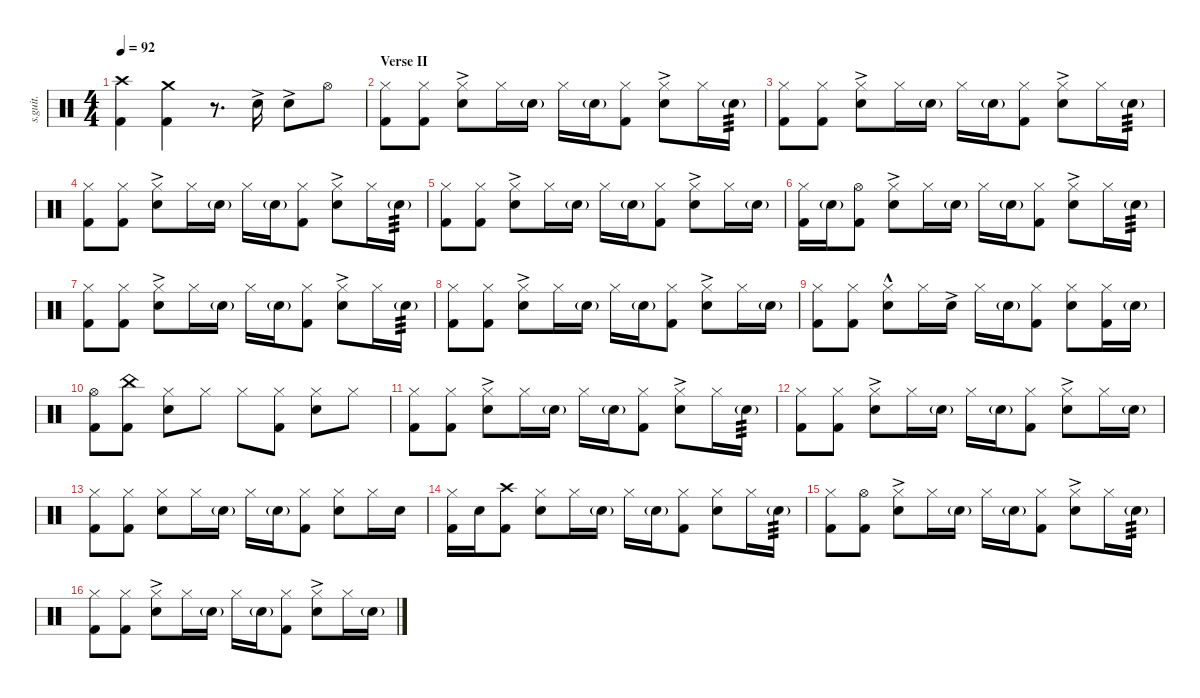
\defaultSystemsLayout 4
\hideDynamics
\bracketExtendMode nobrackets
\track ("Chad Smith | Pearl Masters Series | Drums" "s.guit.") {instrument percussion}
\staff {score}
\articulation defaults
\ts (4 4)
\tempo 92
\clef neutral
\ks c
("Crash high (hit)" "Kick (hit) 2").4{dy f} ("Crash medium (hit)" "Kick (hit) 2").4 r.8{d} "Snare (hit) 2"{ac}.16 "Snare (hit) 2"{ac}.8 "Hi-Hat (open)".8 |
\section ("" "Verse II")
("Hi-Hat (closed)" "Kick (hit) 2").8 ("Hi-Hat (closed)" "Kick (hit) 2").8 ("Hi-Hat (closed)" "Snare (hit) 2"{ac}).8 "Hi-Hat (closed)".16 "Snare (hit) 2"{g}.16 "Hi-Hat (closed)".16 "Snare (hit) 2"{g}.16 ("Hi-Hat (closed)" "Kick (hit) 2").8 ("Hi-Hat (closed)" "Snare (hit) 2"{ac}).8 "Hi-Hat (closed)".16 "Snare (hit) 2"{g}.16{tp 3} |
("Hi-Hat (closed)" "Kick (hit) 2").8 ("Hi-Hat (closed)" "Kick (hit) 2").8 ("Hi-Hat (closed)" "Snare (hit) 2"{ac}).8 "Hi-Hat (closed)".16 "Snare (hit) 2"{g}.16 "Hi-Hat (closed)".16 "Snare (hit) 2"{g}.16 ("Hi-Hat (closed)" "Kick (hit) 2").8 ("Hi-Hat (closed)" "Snare (hit) 2"{ac}).8 "Hi-Hat (closed)".16 "Snare (hit) 2"{g}.16{tp 3} |
("Hi-Hat (closed)" "Kick (hit) 2").8 ("Hi-Hat (closed)" "Kick (hit) 2").8 ("Hi-Hat (closed)" "Snare (hit) 2"{ac}).8 "Hi-Hat (closed)".16 "Snare (hit) 2"{g}.16 "Hi-Hat (closed)".16 "Snare (hit) 2"{g}.16 ("Hi-Hat (closed)" "Kick (hit) 2").8 ("Hi-Hat (closed)" "Snare (hit) 2"{ac}).8 "Hi-Hat (closed)".16 "Snare (hit) 2"{g}.16{tp 3} |
("Hi-Hat (closed)" "Kick (hit) 2").8 ("Hi-Hat (closed)" "Kick (hit) 2").8 ("Hi-Hat (closed)" "Snare (hit) 2"{ac}).8 "Hi-Hat (closed)".16 "Snare (hit) 2"{g}.16 "Hi-Hat (closed)".16 "Snare (hit) 2"{g}.16 ("Hi-Hat (closed)" "Kick (hit) 2").8 ("Hi-Hat (closed)" "Snare (hit) 2"{ac}).8 "Hi-Hat (closed)".16 "Snare (hit) 2"{g}.16 |
("Hi-Hat (closed)" "Kick (hit) 2").16 "Snare (hit) 2"{g}.16 ("Hi-Hat (open)" "Kick (hit) 2").8 ("Hi-Hat (closed)" "Snare (hit) 2"{ac}).8 "Hi-Hat (closed)".16 "Snare (hit) 2"{g}.16 "Hi-Hat (closed)".16 "Snare (hit) 2"{g}.16 ("Hi-Hat (closed)" "Kick (hit) 2").8 ("Hi-Hat (closed)" "Snare (hit) 2"{ac}).8 "Hi-Hat (closed)".16 "Snare (hit) 2"{g}.16{tp 3} |
("Hi-Hat (closed)" "Kick (hit) 2").8 ("Hi-Hat (closed)" "Kick (hit) 2").8 ("Hi-Hat (closed)" "Snare (hit) 2"{ac}).8 "Hi-Hat (closed)".16 "Snare (hit) 2"{g}.16 "Hi-Hat (closed)".16 "Snare (hit) 2"{g}.16 ("Hi-Hat (closed)" "Kick (hit) 2").8 ("Hi-Hat (closed)" "Snare (hit) 2"{ac}).8 "Hi-Hat (closed)".16 "Snare (hit) 2"{g}.16{tp 3} |
("Hi-Hat (closed)" "Kick (hit) 2").8 ("Hi-Hat (closed)" "Kick (hit) 2").8 ("Hi-Hat (closed)" "Snare (hit) 2"{ac}).8 "Hi-Hat (closed)".16 "Snare (hit) 2"{g}.16 "Hi-Hat (closed)".16 "Snare (hit) 2"{g}.16 ("Hi-Hat (closed)" "Kick (hit) 2").8 ("Hi-Hat (closed)" "Snare (hit) 2"{ac}).8 "Hi-Hat (closed)".16 "Snare (hit) 2"{g}.16 |
("Hi-Hat (closed)" "Kick (hit) 2").8 ("Hi-Hat (closed)" "Kick (hit) 2").8 ("Hi-Hat (closed)" "Snare (hit) 2"{hac}).8 "Hi-Hat (closed)".16 "Snare (hit) 2"{ac}.16 "Hi-Hat (closed)".16 "Snare (hit) 2"{g}.16 ("Hi-Hat (closed)" "Kick (hit) 2").8 ("Hi-Hat (closed)" "Snare (hit) 2").8 ("Hi-Hat (closed)" "Kick (hit) 2").16 "Snare (hit) 2"{g}.16 |
("Hi-Hat (open)" "Kick (hit) 2").8 ("China (hit)" "Kick (hit) 2").8 ("Hi-Hat (closed)" "Snare (hit) 2").8 "Hi-Hat (closed)".8 "Hi-Hat (closed)".8 ("Hi-Hat (closed)" "Kick (hit) 2").8 ("Hi-Hat (closed)" "Snare (hit) 2").8 "Hi-Hat (closed)".8 |
("Hi-Hat (closed)" "Kick (hit) 2").8 ("Hi-Hat (closed)" "Kick (hit) 2").8 ("Hi-Hat (closed)" "Snare (hit) 2"{ac}).8 "Hi-Hat (closed)".16 "Snare (hit) 2"{g}.16 "Hi-Hat (closed)".16 "Snare (hit) 2"{g}.16 ("Hi-Hat (closed)" "Kick (hit) 2").8 ("Hi-Hat (closed)" "Snare (hit) 2"{ac}).8 "Hi-Hat (closed)".16 "Snare (hit) 2"{g}.16{tp 3} |
("Hi-Hat (closed)" "Kick (hit) 2").8 ("Hi-Hat (closed)" "Kick (hit) 2").8 ("Hi-Hat (closed)" "Snare (hit) 2"{ac}).8 "Hi-Hat (closed)".16 "Snare (hit) 2"{g}.16 "Hi-Hat (closed)".16 "Snare (hit) 2"{g}.16 ("Hi-Hat (closed)" "Kick (hit) 2").8 ("Hi-Hat (closed)" "Snare (hit) 2"{ac}).8 "Hi-Hat (closed)".16 "Snare (hit) 2"{g}.16 |
("Hi-Hat (closed)" "Kick (hit) 2").8 ("Hi-Hat (closed)" "Kick (hit) 2").8 ("Hi-Hat (closed)" "Snare (hit) 2").8 "Hi-Hat (closed)".16 "Snare (hit) 2"{g}.16 "Hi-Hat (closed)".16 "Snare (hit) 2"{g}.16 ("Hi-Hat (closed)" "Kick (hit) 2").8 ("Hi-Hat (closed)" "Snare (hit) 2").8 "Hi-Hat (closed)".16 "Snare (hit) 2".16 |
("Hi-Hat (closed)" "Kick (hit) 2").16 "Snare (hit) 2".16 ("Crash high (hit)" "Kick (hit) 2").8 ("Hi-Hat (closed)" "Snare (hit) 2").8 "Hi-Hat (closed)".16 "Snare (hit) 2"{g}.16 "Hi-Hat (closed)".16 "Snare (hit) 2"{g}.16 ("Hi-Hat (closed)" "Kick (hit) 2").8 ("Hi-Hat (closed)" "Snare (hit) 2").8 "Hi-Hat (closed)".16 "Snare (hit) 2"{g}.16{tp 3} |
("Hi-Hat (closed)" "Kick (hit) 2").8 ("Hi-Hat (open)" "Kick (hit) 2").8 ("Hi-Hat (closed)" "Snare (hit) 2"{ac}).8 "Hi-Hat (closed)".16 "Snare (hit) 2"{g}.16 "Hi-Hat (closed)".16 "Snare (hit) 2"{g}.16 ("Hi-Hat (closed)" "Kick (hit) 2").8 ("Hi-Hat (closed)" "Snare (hit) 2"{ac}).8 "Hi-Hat (closed)".16 "Snare (hit) 2"{g}.16{tp 3} |
("Hi-Hat (closed)" "Kick (hit) 2").8 ("Hi-Hat (closed)" "Kick (hit) 2").8 ("Hi-Hat (closed)" "Snare (hit) 2"{ac}).8 "Hi-Hat (closed)".16 "Snare (hit) 2"{g}.16 "Hi-Hat (closed)".16 "Snare (hit) 2"{g}.16 ("Hi-Hat (closed)" "Kick (hit) 2").8 ("Hi-Hat (closed)" "Snare (hit) 2"{ac}).8 "Hi-Hat (closed)".16 "Snare (hit) 2"{g}.16
